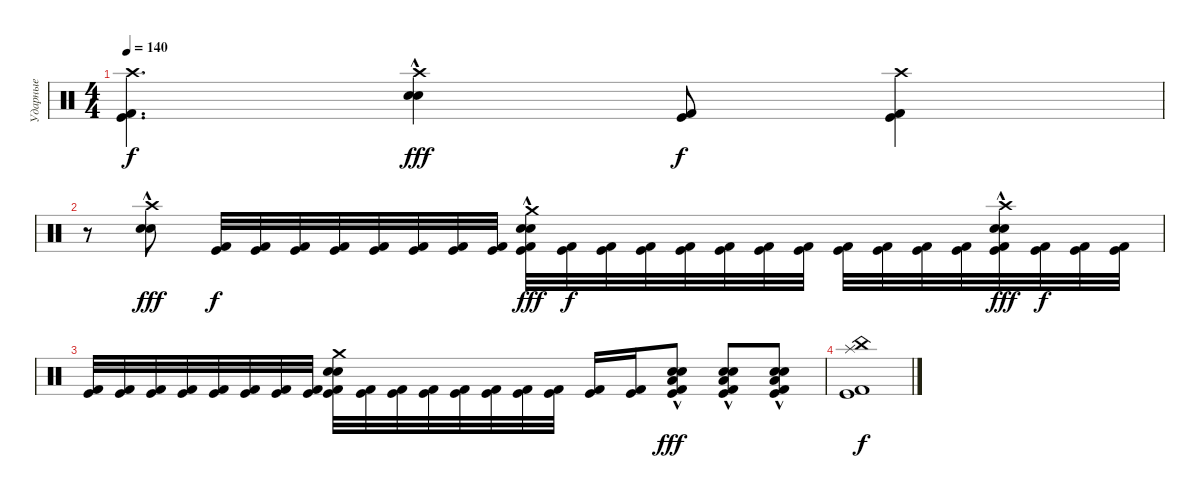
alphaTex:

\track ("Ударные" "Ударные") {instrument percussion}
\staff {score}
\articulation defaults
\ts (4 4)
\tempo 140
\clef neutral
\ks c
("Crash high (hit)" "Kick (hit)" "Kick (hit) 2").4{d dy f} ("Crash high (hit)" "Snare (hit) 2"{hac} "Electric Snare (hit)"{hac}).4{dy fff} ("Kick (hit)" "Kick (hit) 2").8{dy f} ("Crash high (hit)" "Kick (hit)" "Kick (hit) 2").4 |
r.8 ("Crash high (hit)" "Snare (hit) 2"{hac} "Electric Snare (hit)"{hac}).8{dy fff} ("Kick (hit)" "Kick (hit) 2").32{dy f} ("Kick (hit)" "Kick (hit) 2").32 ("Kick (hit)" "Kick (hit) 2").32 ("Kick (hit)" "Kick (hit) 2").32 ("Kick (hit)" "Kick (hit) 2").32 ("Kick (hit)" "Kick (hit) 2").32 ("Kick (hit)" "Kick (hit) 2").32 ("Kick (hit)" "Kick (hit) 2").32 ("Crash medium (hit)" "Kick (hit)" "Kick (hit) 2" "Snare (hit) 2"{hac} "Electric Snare (hit)"{hac}).32{dy fff} ("Kick (hit)" "Kick (hit) 2").32{dy f} ("Kick (hit)" "Kick (hit) 2").32 ("Kick (hit)" "Kick (hit) 2").32 ("Kick (hit)" "Kick (hit) 2").32 ("Kick (hit)" "Kick (hit) 2").32 ("Kick (hit)" "Kick (hit) 2").32 ("Kick (hit)" "Kick (hit) 2").32 ("Kick (hit)" "Kick (hit) 2").32 ("Kick (hit)" "Kick (hit) 2").32 ("Kick (hit)" "Kick (hit) 2").32 ("Kick (hit)" "Kick (hit) 2").32 ("Crash high (hit)" "Kick (hit)" "Kick (hit) 2" "Snare (hit) 2"{hac} "Electric Snare (hit)"{hac}).32{dy fff} ("Kick (hit)" "Kick (hit) 2").32{dy f} ("Kick (hit)" "Kick (hit) 2").32 ("Kick (hit)" "Kick (hit) 2").32 |
("Kick (hit)" "Kick (hit) 2").32 ("Kick (hit)" "Kick (hit) 2").32 ("Kick (hit)" "Kick (hit) 2").32 ("Kick (hit)" "Kick (hit) 2").32 ("Kick (hit)" "Kick (hit) 2").32 ("Kick (hit)" "Kick (hit) 2").32 ("Kick (hit)" "Kick (hit) 2").32 ("Kick (hit)" "Kick (hit) 2").32 ("Crash medium (hit)" "Kick (hit)" "Kick (hit) 2" "Snare (hit) 2" "Electric Snare (hit)").32 ("Kick (hit)" "Kick (hit) 2").32 ("Kick (hit)" "Kick (hit) 2").32 ("Kick (hit)" "Kick (hit) 2").32 ("Kick (hit)" "Kick (hit) 2").32 ("Kick (hit)" "Kick (hit) 2").32 ("Kick (hit)" "Kick (hit) 2").32 ("Kick (hit)" "Kick (hit) 2").32 ("Kick (hit)" "Kick (hit) 2").16 ("Kick (hit)" "Kick (hit) 2").16 ("Kick (hit)" "Kick (hit) 2" "Snare (hit) 2"{hac} "Electric Snare (hit)"{hac} "Low Floor Tom (hit)"{hac}).8{dy fff} ("Kick (hit)" "Kick (hit) 2" "Snare (hit) 2"{hac} "Electric Snare (hit)"{hac} "Low Floor Tom (hit)"{hac}).8 ("Kick (hit)" "Kick (hit) 2" "Snare (hit) 2"{hac} "Electric Snare (hit)"{hac} "Low Floor Tom (hit)"{hac}).8 |
("Splash (hit)" "Kick (hit)" "Kick (hit) 2" "China (hit)").1{dy f}
